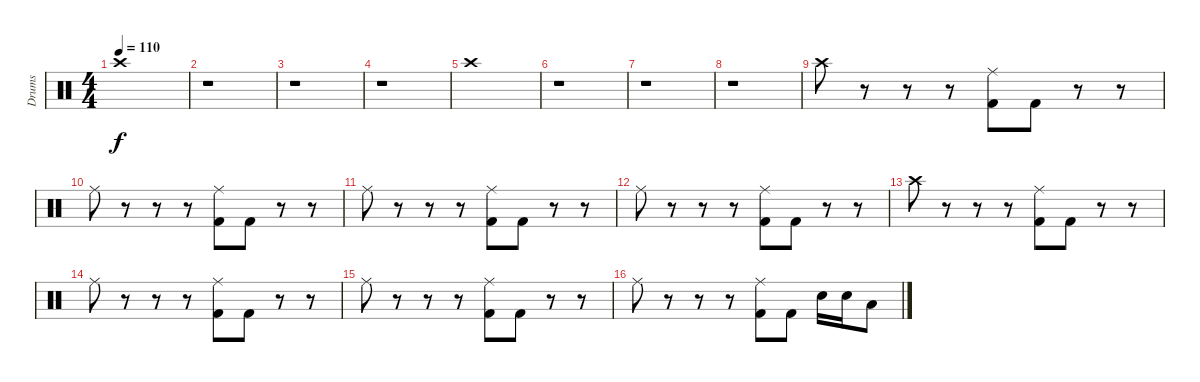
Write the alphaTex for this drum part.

\track ("Drums" "Drums") {instrument percussion}
\staff {score}
\articulation defaults
\ts (4 4)
\tempo 110
\clef neutral
\ks c "Crash high (hit)".1{dy f}
|
r.1 |
r.1 |
r.1 |
"Crash high (hit)".1 |
r.1 |
r.1 |
r.1 |
"Crash high (hit)".8 r.8 r.8 r.8 ("Ride (middle)" "Kick (hit) 2").8 "Kick (hit) 2".8 r.8 r.8 |
"Ride (middle)".8 r.8 r.8 r.8 ("Ride (middle)" "Kick (hit) 2").8 "Kick (hit) 2".8 r.8 r.8 |
"Ride (middle)".8 r.8 r.8 r.8 ("Ride (middle)" "Kick (hit) 2").8 "Kick (hit) 2".8 r.8 r.8 |
"Ride (middle)".8 r.8 r.8 r.8 ("Ride (middle)" "Kick (hit) 2").8 "Kick (hit) 2".8 r.8 r.8 |
"Crash high (hit)".8 r.8 r.8 r.8 ("Ride (middle)" "Kick (hit) 2").8 "Kick (hit) 2".8 r.8 r.8 |
"Ride (middle)".8 r.8 r.8 r.8 ("Ride (middle)" "Kick (hit) 2").8 "Kick (hit) 2".8 r.8 r.8 |
"Ride (middle)".8 r.8 r.8 r.8 ("Ride (middle)" "Kick (hit) 2").8 "Kick (hit) 2".8 r.8 r.8 |
"Ride (middle)".8 r.8 r.8 r.8 ("Ride (middle)" "Kick (hit) 2").8 "Kick (hit) 2".8 "Snare (hit) 2".16 "Snare (hit) 2".16 "Low Tom (hit)".8
